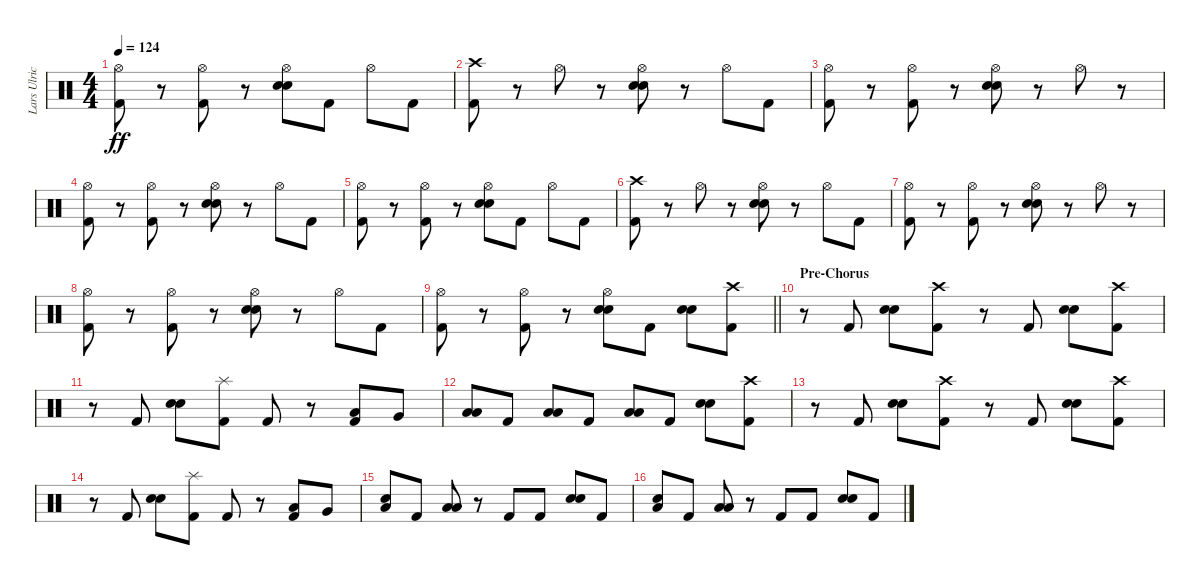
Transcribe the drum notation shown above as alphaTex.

\track ("Lars Ulrich" "Lars Ulric") {instrument percussion}
\staff {score}
\articulation defaults
\ts (4 4)
\tempo 124
\clef neutral
\ks c
("Hi-Hat (open)" "Kick (hit) 2").8{dy ff} r.8 ("Hi-Hat (open)" "Kick (hit) 2").8 r.8 ("Hi-Hat (open)" "Electric Snare (hit)" "Electric Snare (hit)").8 "Kick (hit) 2".8 "Hi-Hat (open)".8 "Kick (hit) 2".8 |
("Crash high (hit)" "Kick (hit) 2").8 r.8 "Hi-Hat (open)".8 r.8 ("Hi-Hat (open)" "Electric Snare (hit)" "Electric Snare (hit)").8 r.8 "Hi-Hat (open)".8 "Kick (hit) 2".8 |
("Hi-Hat (open)" "Kick (hit) 2").8 r.8 ("Hi-Hat (open)" "Kick (hit) 2").8 r.8 ("Hi-Hat (open)" "Electric Snare (hit)" "Electric Snare (hit)").8 r.8 "Hi-Hat (open)".8 r.8 |
("Hi-Hat (open)" "Kick (hit) 2").8 r.8 ("Hi-Hat (open)" "Kick (hit) 2").8 r.8 ("Hi-Hat (open)" "Electric Snare (hit)" "Electric Snare (hit)").8 r.8 "Hi-Hat (open)".8 "Kick (hit) 2".8 |
("Hi-Hat (open)" "Kick (hit) 2").8 r.8 ("Hi-Hat (open)" "Kick (hit) 2").8 r.8 ("Hi-Hat (open)" "Electric Snare (hit)" "Electric Snare (hit)").8 "Kick (hit) 2".8 "Hi-Hat (open)".8 "Kick (hit) 2".8 |
("Crash high (hit)" "Kick (hit) 2").8 r.8 "Hi-Hat (open)".8 r.8 ("Hi-Hat (open)" "Electric Snare (hit)" "Electric Snare (hit)").8 r.8 "Hi-Hat (open)".8 "Kick (hit) 2".8 |
("Hi-Hat (open)" "Kick (hit) 2").8 r.8 ("Hi-Hat (open)" "Kick (hit) 2").8 r.8 ("Hi-Hat (open)" "Electric Snare (hit)" "Electric Snare (hit)").8 r.8 "Hi-Hat (open)".8 r.8 |
("Hi-Hat (open)" "Kick (hit) 2").8 r.8 ("Hi-Hat (open)" "Kick (hit) 2").8 r.8 ("Hi-Hat (open)" "Electric Snare (hit)" "Electric Snare (hit)").8 r.8 "Hi-Hat (open)".8 "Kick (hit) 2".8 |
\barLineRight lightlight
("Hi-Hat (open)" "Kick (hit) 2").8 r.8 ("Hi-Hat (open)" "Kick (hit) 2").8 r.8 ("Hi-Hat (open)" "Electric Snare (hit)" "Electric Snare (hit)").8 "Kick (hit) 2".8 ("Electric Snare (hit)" "Electric Snare (hit)").8{bd 240} ("Crash high (hit)" "Kick (hit) 2").8 |
\section ("" "Pre-Chorus")
r.8 "Kick (hit) 2".8 ("Electric Snare (hit)" "Electric Snare (hit)").8{bd 240} ("Crash high (hit)" "Kick (hit) 2").8 r.8 "Kick (hit) 2".8 ("Electric Snare (hit)" "Electric Snare (hit)").8{bd 240} ("Crash high (hit)" "Kick (hit) 2").8 |
r.8 "Kick (hit) 2".8 ("Electric Snare (hit)" "Electric Snare (hit)").8{bd 240} ("Splash (hit)" "Kick (hit) 2").8 "Kick (hit) 2".8 r.8 ("Low Floor Tom (hit)" "Kick (hit) 2").8 "Very Low Tom (hit)".8 |
("Low Tom (hit)" "Low Tom (hit)").8 "Kick (hit) 2".8 ("Low Tom (hit)" "Low Tom (hit)").8 "Kick (hit) 2".8 ("Low Tom (hit)" "Low Tom (hit)").8 "Kick (hit) 2".8 ("Electric Snare (hit)" "Electric Snare (hit)").8{bd 240} ("Crash high (hit)" "Kick (hit) 2").8 |
r.8 "Kick (hit) 2".8 ("Electric Snare (hit)" "Electric Snare (hit)").8{bd 240} ("Crash high (hit)" "Kick (hit) 2").8 r.8 "Kick (hit) 2".8 ("Electric Snare (hit)" "Electric Snare (hit)").8{bd 240} ("Crash high (hit)" "Kick (hit) 2").8 |
r.8 "Kick (hit) 2".8 ("Electric Snare (hit)" "Electric Snare (hit)").8{bd 240} ("Splash (hit)" "Kick (hit) 2").8 "Kick (hit) 2".8 r.8 ("Low Floor Tom (hit)" "Kick (hit) 2").8 "Very Low Tom (hit)".8 |
("Electric Snare (hit)" "Low Tom (hit)").8 "Kick (hit) 2".8 ("Low Tom (hit)" "Low Tom (hit)").8 r.8 "Kick (hit) 2".8 "Kick (hit) 2".8 ("Electric Snare (hit)" "Electric Snare (hit)").8{bd 240} "Kick (hit) 2".8 |
("Electric Snare (hit)" "Low Tom (hit)").8 "Kick (hit) 2".8 ("Low Tom (hit)" "Low Tom (hit)").8 r.8 "Kick (hit) 2".8 "Kick (hit) 2".8 ("Electric Snare (hit)" "Electric Snare (hit)").8{bd 240} "Kick (hit) 2".8
